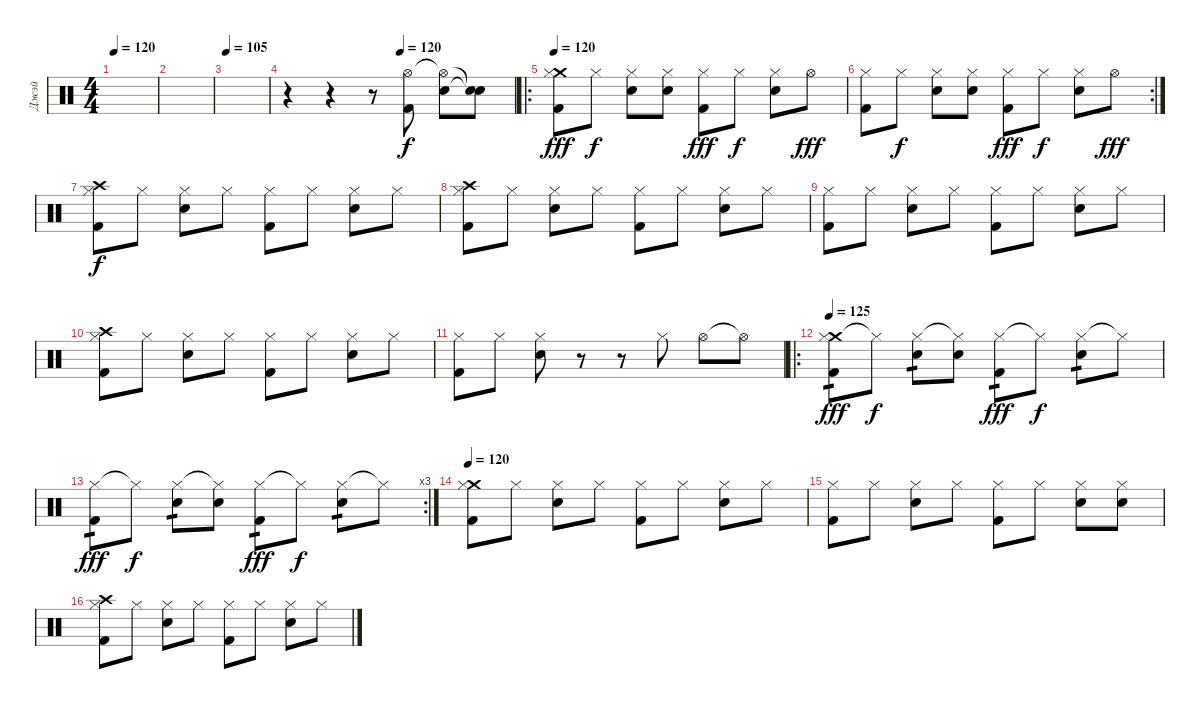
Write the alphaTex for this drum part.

\track ("Джэй" "Джэй") {instrument percussion}
\staff {score}
\articulation defaults
\ts (4 4)
\tempo 120
\tempo 105
\tempo 120
\clef neutral
\ks c
|
|
\tempo 105
|
\tempo (120 0.5)
r.4 r.4 r.8 ("Kick (hit) 2" "Hi-Hat (open)").8 ("Snare (hit) 2" "Hi-Hat (open)"{t}).8{dy f} ("Snare (hit)"{t} "Snare (hit)"{t}).8 |
\ro
\tempo 120
("Crash medium (hit)" "Hi-Hat (closed)" "Kick (hit) 2").8{dy fff} "Hi-Hat (closed)".8{dy f} ("Hi-Hat (closed)" "Snare (hit) 2").8 ("Hi-Hat (closed)" "Snare (hit) 2").8 ("Hi-Hat (closed)" "Kick (hit) 2").8{dy fff} "Hi-Hat (closed)".8{dy f} ("Hi-Hat (closed)" "Snare (hit) 2").8 "Hi-Hat (open)".8{dy fff} |
\rc 2
("Hi-Hat (closed)" "Kick (hit) 2").8 "Hi-Hat (closed)".8{dy f} ("Hi-Hat (closed)" "Snare (hit) 2").8 ("Hi-Hat (closed)" "Snare (hit) 2").8 ("Hi-Hat (closed)" "Kick (hit) 2").8{dy fff} "Hi-Hat (closed)".8{dy f} ("Hi-Hat (closed)" "Snare (hit) 2").8 "Hi-Hat (open)".8{dy fff} |
("Crash high (hit)" "Hi-Hat (closed)" "Kick (hit) 2").8{dy f} "Hi-Hat (closed)".8 ("Hi-Hat (closed)" "Snare (hit) 2").8 "Hi-Hat (closed)".8 ("Hi-Hat (closed)" "Kick (hit) 2").8 "Hi-Hat (closed)".8 ("Hi-Hat (closed)" "Snare (hit) 2").8 "Hi-Hat (closed)".8 |
("Crash high (hit)" "Hi-Hat (closed)" "Kick (hit) 2").8 "Hi-Hat (closed)".8 ("Hi-Hat (closed)" "Snare (hit) 2").8 "Hi-Hat (closed)".8 ("Hi-Hat (closed)" "Kick (hit) 2").8 "Hi-Hat (closed)".8 ("Hi-Hat (closed)" "Snare (hit) 2").8 "Hi-Hat (closed)".8 |
("Hi-Hat (closed)" "Kick (hit) 2").8 "Hi-Hat (closed)".8 ("Hi-Hat (closed)" "Snare (hit) 2").8 "Hi-Hat (closed)".8 ("Hi-Hat (closed)" "Kick (hit) 2").8 "Hi-Hat (closed)".8 ("Hi-Hat (closed)" "Snare (hit) 2").8 "Hi-Hat (closed)".8 |
("Crash high (hit)" "Hi-Hat (closed)" "Kick (hit) 2").8 "Hi-Hat (closed)".8 ("Hi-Hat (closed)" "Snare (hit) 2").8 "Hi-Hat (closed)".8 ("Hi-Hat (closed)" "Kick (hit) 2").8 "Hi-Hat (closed)".8 ("Hi-Hat (closed)" "Snare (hit) 2").8 "Hi-Hat (closed)".8 |
("Hi-Hat (closed)" "Kick (hit) 2").8 "Hi-Hat (closed)".8 ("Hi-Hat (closed)" "Snare (hit) 2").8 r.8 r.8 "Hi-Hat (closed)".8 "Hi-Hat (open)".8 "Hi-Hat (open)"{t}.8 |
\ro
\tempo 125
("Crash medium (hit)" "Hi-Hat (closed)" "Kick (hit) 2").8{tp 1 dy fff} "Hi-Hat (closed)"{t}.8{dy f} ("Hi-Hat (closed)" "Snare (hit) 2").8{tp 1} ("Hi-Hat (closed)"{t} "Snare (hit) 2").8 ("Hi-Hat (closed)" "Kick (hit) 2").8{tp 1 dy fff} "Hi-Hat (closed)"{t}.8{dy f} ("Hi-Hat (closed)" "Snare (hit) 2").8{tp 1} "Hi-Hat (closed)"{t}.8 |
\rc 3
("Hi-Hat (closed)" "Kick (hit) 2").8{tp 1 dy fff} "Hi-Hat (closed)"{t}.8{dy f} ("Hi-Hat (closed)" "Snare (hit) 2").8{tp 1} ("Hi-Hat (closed)"{t} "Snare (hit) 2").8 ("Hi-Hat (closed)" "Kick (hit) 2").8{tp 1 dy fff} "Hi-Hat (closed)"{t}.8{dy f} ("Hi-Hat (closed)" "Snare (hit) 2").8{tp 1} "Hi-Hat (closed)"{t}.8 |
\tempo 120
("Crash medium (hit)" "Hi-Hat (closed)" "Kick (hit) 2").8 "Hi-Hat (closed)".8 ("Hi-Hat (closed)" "Snare (hit) 2").8 "Hi-Hat (closed)".8 ("Hi-Hat (closed)" "Kick (hit) 2").8 "Hi-Hat (closed)".8 ("Hi-Hat (closed)" "Snare (hit) 2").8 "Hi-Hat (closed)".8 |
("Hi-Hat (closed)" "Kick (hit) 2").8 "Hi-Hat (closed)".8 ("Hi-Hat (closed)" "Snare (hit) 2").8 "Hi-Hat (closed)".8 ("Hi-Hat (closed)" "Kick (hit) 2").8 "Hi-Hat (closed)".8 ("Hi-Hat (closed)" "Snare (hit) 2").8 ("Hi-Hat (closed)" "Snare (hit) 2").8 |
("Crash high (hit)" "Hi-Hat (closed)" "Kick (hit) 2").8 "Hi-Hat (closed)".8 ("Hi-Hat (closed)" "Snare (hit) 2").8 "Hi-Hat (closed)".8 ("Hi-Hat (closed)" "Kick (hit) 2").8 "Hi-Hat (closed)".8 ("Hi-Hat (closed)" "Snare (hit) 2").8 "Hi-Hat (closed)".8
